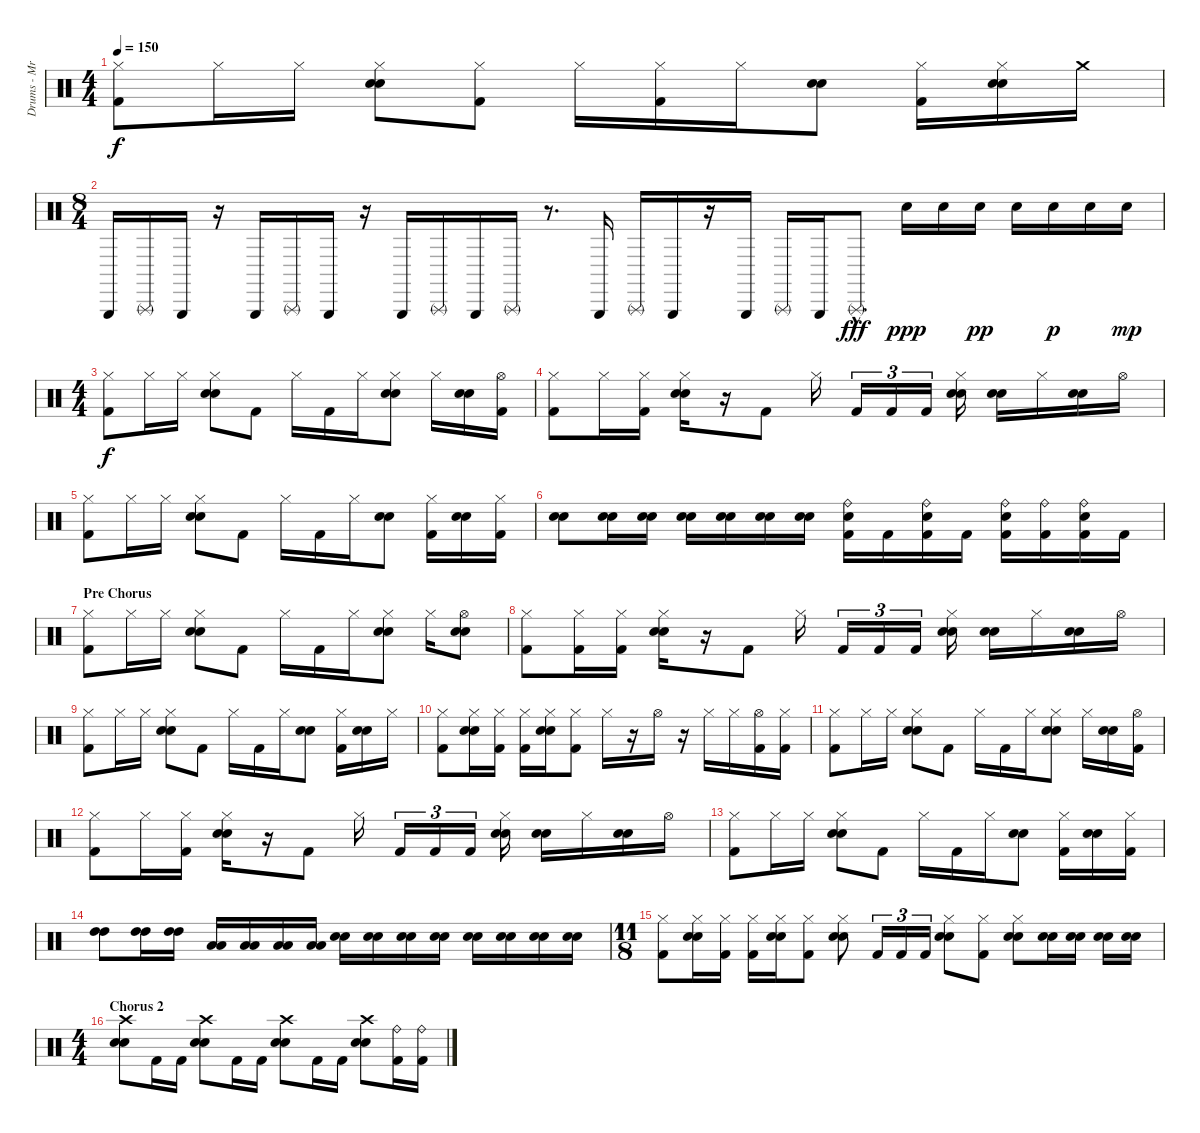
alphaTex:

\track ("Drums - Mr. Beller, Thomas" "Drums - Mr") {instrument percussion}
\staff {score}
\articulation defaults
\ts (4 4)
\tempo 150
\clef neutral
\ks c
("Hi-Hat (closed)" "Kick (hit) 2").8{dy f} "Hi-Hat (closed)".16 "Hi-Hat (closed)".16 ("Hi-Hat (closed)" "Electric Snare (hit)" "Electric Snare (hit)").8 ("Hi-Hat (closed)" "Kick (hit) 2").8 "Hi-Hat (closed)".16 ("Hi-Hat (closed)" "Kick (hit) 2").16 "Hi-Hat (closed)".16 ("Electric Snare (hit)" "Electric Snare (hit)").8 ("Hi-Hat (closed)" "Kick (hit) 2").16 ("Hi-Hat (closed)" "Electric Snare (hit)" "Electric Snare (hit)").16 "Crash medium (hit)".16 |
\ts (8 4)
"Triangle (hit)".16 "Triangle (rnute)".16 "Triangle (hit)".16 r.16 "Triangle (hit)".16 "Triangle (rnute)".16 "Triangle (hit)".16 r.16 "Triangle (hit)".16 "Triangle (rnute)".16 "Triangle (hit)".16 "Triangle (rnute)".16 r.8{d} "Triangle (hit)".16 "Triangle (rnute)".16 "Triangle (hit)".16 r.16 "Triangle (hit)".16 "Triangle (rnute)".16 "Triangle (hit)".16 "Triangle (rnute)"{hac}.8{d dy fff} "Metronome (bell)".16{dy ppp} "Metronome (bell)".16 "Metronome (bell)".16{dy pp} "Metronome (bell)".16 "Metronome (bell)".16{dy p} "Metronome (bell)".16 "Metronome (bell)".16{dy mp} |
\ts (4 4)
("Hi-Hat (closed)" "Kick (hit) 2").8{dy f} "Hi-Hat (closed)".16 "Hi-Hat (closed)".16 ("Hi-Hat (closed)" "Electric Snare (hit)" "Electric Snare (hit)").8 "Kick (hit) 2".8 "Hi-Hat (closed)".16 "Kick (hit) 2".16 "Hi-Hat (closed)".16 ("Hi-Hat (closed)" "Electric Snare (hit)" "Electric Snare (hit)").8 "Hi-Hat (closed)".16 ("Electric Snare (hit)" "Electric Snare (hit)").16 ("Hi-Hat (open)" "Kick (hit) 2").16 |
("Hi-Hat (closed)" "Kick (hit) 2").8 "Hi-Hat (closed)".16 ("Hi-Hat (closed)" "Kick (hit) 2").16 ("Hi-Hat (closed)" "Electric Snare (hit)" "Electric Snare (hit)").16 r.16 "Kick (hit) 2".8 "Hi-Hat (closed)".16 "Kick (hit) 2".16{tu (3 2)} "Kick (hit) 2".16{tu (3 2)} "Kick (hit) 2".16{tu (3 2)} ("Hi-Hat (closed)" "Electric Snare (hit)" "Electric Snare (hit)").16 ("Electric Snare (hit)" "Electric Snare (hit)").16 "Hi-Hat (closed)".16 ("Electric Snare (hit)" "Electric Snare (hit)").16 "Hi-Hat (open)".16 |
("Hi-Hat (closed)" "Kick (hit) 2").8 "Hi-Hat (closed)".16 "Hi-Hat (closed)".16 ("Hi-Hat (closed)" "Electric Snare (hit)" "Electric Snare (hit)").8 "Kick (hit) 2".8 "Hi-Hat (closed)".16 "Kick (hit) 2".16 "Hi-Hat (closed)".16 ("Electric Snare (hit)" "Electric Snare (hit)").8 ("Hi-Hat (closed)" "Kick (hit) 2").16 ("Electric Snare (hit)" "Electric Snare (hit)").16 ("Hi-Hat (closed)" "Kick (hit) 2").16 |
("Electric Snare (hit)" "Electric Snare (hit)").8 ("Electric Snare (hit)" "Electric Snare (hit)").16 ("Electric Snare (hit)" "Electric Snare (hit)").16 ("Electric Snare (hit)" "Electric Snare (hit)").16 ("Electric Snare (hit)" "Electric Snare (hit)").16 ("Electric Snare (hit)" "Electric Snare (hit)").16 ("Electric Snare (hit)" "Electric Snare (hit)").16 ("Ride (bell)" "Electric Snare (hit)" "Kick (hit) 2").16 "Kick (hit) 2".16 ("Ride (bell)" "Electric Snare (hit)" "Kick (hit) 2").16 "Kick (hit) 2".16 ("Ride (bell)" "Electric Snare (hit)" "Kick (hit) 2").16 ("Ride (bell)" "Kick (hit) 2").16 ("Ride (bell)" "Electric Snare (hit)" "Kick (hit) 2").16 "Kick (hit) 2".16 |
\section ("" "Pre Chorus")
("Hi-Hat (closed)" "Kick (hit) 2").8 "Hi-Hat (closed)".16 "Hi-Hat (closed)".16 ("Hi-Hat (closed)" "Electric Snare (hit)" "Electric Snare (hit)").8 "Kick (hit) 2".8 "Hi-Hat (closed)".16 "Kick (hit) 2".16 "Hi-Hat (closed)".16 ("Hi-Hat (closed)" "Electric Snare (hit)" "Electric Snare (hit)").8 "Hi-Hat (closed)".16 ("Hi-Hat (open)" "Electric Snare (hit)" "Electric Snare (hit)").8 |
("Hi-Hat (closed)" "Kick (hit) 2").8 ("Hi-Hat (closed)" "Kick (hit) 2").16 ("Hi-Hat (closed)" "Kick (hit) 2").16 ("Hi-Hat (closed)" "Electric Snare (hit)" "Electric Snare (hit)").16 r.16 "Kick (hit) 2".8 "Hi-Hat (closed)".16 "Kick (hit) 2".16{tu (3 2)} "Kick (hit) 2".16{tu (3 2)} "Kick (hit) 2".16{tu (3 2)} ("Hi-Hat (closed)" "Electric Snare (hit)" "Electric Snare (hit)").16 ("Electric Snare (hit)" "Electric Snare (hit)").16 "Hi-Hat (closed)".16 ("Electric Snare (hit)" "Electric Snare (hit)").16 "Hi-Hat (open)".16 |
("Hi-Hat (closed)" "Kick (hit) 2").8 "Hi-Hat (closed)".16 "Hi-Hat (closed)".16 ("Hi-Hat (closed)" "Electric Snare (hit)" "Electric Snare (hit)").8 "Kick (hit) 2".8 "Hi-Hat (closed)".16 "Kick (hit) 2".16 "Hi-Hat (closed)".16 ("Electric Snare (hit)" "Electric Snare (hit)").8 ("Hi-Hat (closed)" "Kick (hit) 2").16 ("Electric Snare (hit)" "Electric Snare (hit)").16 "Hi-Hat (closed)".16 |
("Hi-Hat (closed)" "Kick (hit) 2").8 ("Hi-Hat (closed)" "Electric Snare (hit)" "Electric Snare (hit)").16 ("Hi-Hat (closed)" "Kick (hit) 2").16 ("Hi-Hat (closed)" "Kick (hit) 2").16 ("Hi-Hat (closed)" "Electric Snare (hit)" "Electric Snare (hit)").16 ("Hi-Hat (closed)" "Kick (hit) 2").8 "Hi-Hat (closed)".16 r.16 "Hi-Hat (open)".16 r.16 "Hi-Hat (closed)".16 "Hi-Hat (closed)".16 ("Hi-Hat (open)" "Kick (hit) 2").16 ("Hi-Hat (closed)" "Kick (hit) 2").16 |
("Hi-Hat (closed)" "Kick (hit) 2").8 "Hi-Hat (closed)".16 "Hi-Hat (closed)".16 ("Hi-Hat (closed)" "Electric Snare (hit)" "Electric Snare (hit)").8 "Kick (hit) 2".8 "Hi-Hat (closed)".16 "Kick (hit) 2".16 "Hi-Hat (closed)".16 ("Hi-Hat (closed)" "Electric Snare (hit)" "Electric Snare (hit)").8 "Hi-Hat (closed)".16 ("Electric Snare (hit)" "Electric Snare (hit)").16 ("Hi-Hat (open)" "Kick (hit) 2").16 |
("Hi-Hat (closed)" "Kick (hit) 2").8 "Hi-Hat (closed)".16 ("Hi-Hat (closed)" "Kick (hit) 2").16 ("Hi-Hat (closed)" "Electric Snare (hit)" "Electric Snare (hit)").16 r.16 "Kick (hit) 2".8 "Hi-Hat (closed)".16 "Kick (hit) 2".16{tu (3 2)} "Kick (hit) 2".16{tu (3 2)} "Kick (hit) 2".16{tu (3 2)} ("Hi-Hat (closed)" "Electric Snare (hit)" "Electric Snare (hit)").16 ("Electric Snare (hit)" "Electric Snare (hit)").16 "Hi-Hat (closed)".16 ("Electric Snare (hit)" "Electric Snare (hit)").16 "Hi-Hat (open)".16 |
("Hi-Hat (closed)" "Kick (hit) 2").8 "Hi-Hat (closed)".16 "Hi-Hat (closed)".16 ("Hi-Hat (closed)" "Electric Snare (hit)" "Electric Snare (hit)").8 "Kick (hit) 2".8 "Hi-Hat (closed)".16 "Kick (hit) 2".16 "Hi-Hat (closed)".16 ("Electric Snare (hit)" "Electric Snare (hit)").8 ("Hi-Hat (closed)" "Kick (hit) 2").16 ("Electric Snare (hit)" "Electric Snare (hit)").16 ("Hi-Hat (closed)" "Kick (hit) 2").16 |
("High Tom (hit)" "High Tom (hit)").8 ("High Tom (hit)" "High Tom (hit)").16 ("High Tom (hit)" "High Tom (hit)").16 ("Low Tom (hit)" "Low Tom (hit)").16 ("Low Tom (hit)" "Low Tom (hit)").16 ("Low Tom (hit)" "Low Tom (hit)").16 ("Low Tom (hit)" "Low Tom (hit)").16 ("Electric Snare (hit)" "Electric Snare (hit)").16 ("Electric Snare (hit)" "Electric Snare (hit)").16 ("Electric Snare (hit)" "Electric Snare (hit)").16 ("Electric Snare (hit)" "Electric Snare (hit)").16 ("Electric Snare (hit)" "Electric Snare (hit)").16 ("Electric Snare (hit)" "Electric Snare (hit)").16 ("Electric Snare (hit)" "Electric Snare (hit)").16 ("Electric Snare (hit)" "Electric Snare (hit)").16 |
\ts (11 8)
("Hi-Hat (closed)" "Kick (hit) 2").8 ("Hi-Hat (closed)" "Electric Snare (hit)" "Electric Snare (hit)").16 ("Hi-Hat (closed)" "Kick (hit) 2").16 ("Hi-Hat (closed)" "Kick (hit) 2").16 ("Hi-Hat (closed)" "Electric Snare (hit)" "Electric Snare (hit)").16 ("Hi-Hat (closed)" "Kick (hit) 2").8 ("Hi-Hat (closed)" "Electric Snare (hit)" "Electric Snare (hit)").8 "Kick (hit) 2".16{tu (3 2)} "Kick (hit) 2".16{tu (3 2)} "Kick (hit) 2".16{tu (3 2)} ("Hi-Hat (closed)" "Electric Snare (hit)" "Electric Snare (hit)").8 ("Hi-Hat (closed)" "Kick (hit) 2").8 ("Hi-Hat (closed)" "Electric Snare (hit)" "Electric Snare (hit)").8 ("Electric Snare (hit)" "Electric Snare (hit)").16 ("Electric Snare (hit)" "Electric Snare (hit)").16 ("Electric Snare (hit)" "Electric Snare (hit)").16 ("Electric Snare (hit)" "Electric Snare (hit)").16 |
\ts (4 4)
\section ("" "Chorus 2")
("Crash high (hit)" "Electric Snare (hit)" "Electric Snare (hit)").8 "Kick (hit) 2".16 "Kick (hit) 2".16 ("Crash high (hit)" "Electric Snare (hit)" "Electric Snare (hit)").8 "Kick (hit) 2".16 "Kick (hit) 2".16 ("Crash high (hit)" "Electric Snare (hit)" "Electric Snare (hit)").8 "Kick (hit) 2".16 "Kick (hit) 2".16 ("Crash high (hit)" "Electric Snare (hit)" "Electric Snare (hit)").8 ("Ride (bell)" "Kick (hit) 2").16 ("Ride (bell)" "Kick (hit) 2").16
